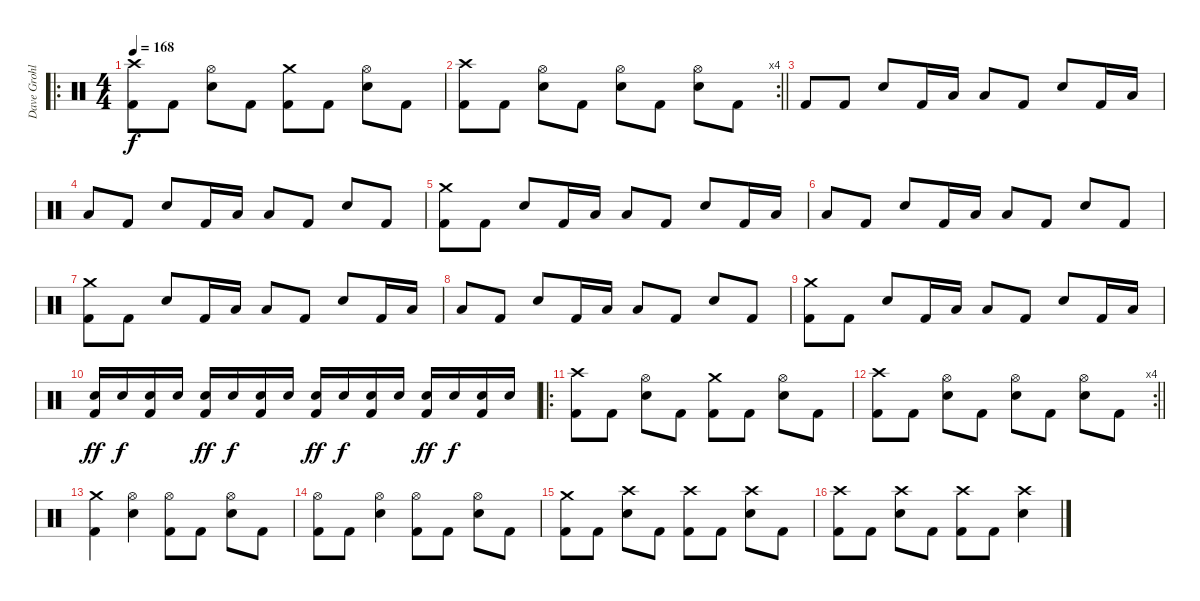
\track ("Dave Grohl - Drums" "Dave Grohl") {instrument percussion}
\staff {score}
\articulation defaults
\ro
\ts (4 4)
\tempo 168
\clef neutral
\ks c
("Crash high (hit)" "Kick (hit) 2").8{dy f volume 13} "Kick (hit) 2".8 ("Hi-Hat (open)" "Electric Snare (hit)").8 "Kick (hit) 2".8 ("Crash medium (hit)" "Kick (hit) 2").8 "Kick (hit) 2".8 ("Hi-Hat (open)" "Electric Snare (hit)").8 "Kick (hit) 2".8 |
\rc 4
\barLineRight lightlight
("Crash high (hit)" "Kick (hit) 2").8{volume 13} "Kick (hit) 2".8 ("Hi-Hat (open)" "Electric Snare (hit)").8 "Kick (hit) 2".8 ("Hi-Hat (open)" "Electric Snare (hit)").8 "Kick (hit) 2".8 ("Hi-Hat (open)" "Electric Snare (hit)").8 "Kick (hit) 2".8 |
"Kick (hit) 2".8 "Kick (hit) 2".8 "Electric Snare (hit)".8 "Kick (hit) 2".16 "Low Floor Tom (hit)".16 "Low Tom (hit)".8 "Kick (hit) 2".8 "Electric Snare (hit)".8 "Kick (hit) 2".16 "Low Floor Tom (hit)".16 |
"Low Tom (hit)".8 "Kick (hit) 2".8 "Electric Snare (hit)".8 "Kick (hit) 2".16 "Low Floor Tom (hit)".16 "Low Tom (hit)".8 "Kick (hit) 2".8 "Electric Snare (hit)".8 "Kick (hit) 2".8 |
("Crash medium (hit)" "Kick (hit) 2").8 "Kick (hit) 2".8 "Electric Snare (hit)".8 "Kick (hit) 2".16 "Low Floor Tom (hit)".16 "Low Tom (hit)".8 "Kick (hit) 2".8 "Electric Snare (hit)".8 "Kick (hit) 2".16 "Low Floor Tom (hit)".16 |
"Low Tom (hit)".8 "Kick (hit) 2".8 "Electric Snare (hit)".8 "Kick (hit) 2".16 "Low Floor Tom (hit)".16 "Low Tom (hit)".8 "Kick (hit) 2".8 "Electric Snare (hit)".8 "Kick (hit) 2".8 |
("Crash medium (hit)" "Kick (hit) 2").8 "Kick (hit) 2".8 "Electric Snare (hit)".8 "Kick (hit) 2".16 "Low Floor Tom (hit)".16 "Low Tom (hit)".8 "Kick (hit) 2".8 "Electric Snare (hit)".8 "Kick (hit) 2".16 "Low Floor Tom (hit)".16 |
"Low Tom (hit)".8 "Kick (hit) 2".8 "Electric Snare (hit)".8 "Kick (hit) 2".16 "Low Floor Tom (hit)".16 "Low Tom (hit)".8 "Kick (hit) 2".8 "Electric Snare (hit)".8 "Kick (hit) 2".8 |
("Crash medium (hit)" "Kick (hit) 2").8 "Kick (hit) 2".8 "Electric Snare (hit)".8 "Kick (hit) 2".16 "Low Floor Tom (hit)".16 "Low Tom (hit)".8 "Kick (hit) 2".8 "Electric Snare (hit)".8 "Kick (hit) 2".16 "Low Floor Tom (hit)".16 |
("Electric Snare (hit)" "Kick (hit) 2").16{dy ff volume 12} "Electric Snare (hit)".16{dy f} ("Electric Snare (hit)" "Kick (hit) 2").16 "Electric Snare (hit)".16 ("Electric Snare (hit)" "Kick (hit) 2").16{dy ff} "Electric Snare (hit)".16{dy f} ("Electric Snare (hit)" "Kick (hit) 2").16 "Electric Snare (hit)".16 ("Electric Snare (hit)" "Kick (hit) 2").16{dy ff} "Electric Snare (hit)".16{dy f} ("Electric Snare (hit)" "Kick (hit) 2").16 "Electric Snare (hit)".16 ("Electric Snare (hit)" "Kick (hit) 2").16{dy ff} "Electric Snare (hit)".16{dy f} ("Electric Snare (hit)" "Kick (hit) 2").16 "Electric Snare (hit)".16 |
\ro
("Crash high (hit)" "Kick (hit) 2").8{volume 13} "Kick (hit) 2".8 ("Hi-Hat (open)" "Electric Snare (hit)").8 "Kick (hit) 2".8 ("Crash medium (hit)" "Kick (hit) 2").8 "Kick (hit) 2".8 ("Hi-Hat (open)" "Electric Snare (hit)").8 "Kick (hit) 2".8 |
\rc 4
\barLineRight lightlight
("Crash high (hit)" "Kick (hit) 2").8{volume 13} "Kick (hit) 2".8 ("Hi-Hat (open)" "Electric Snare (hit)").8 "Kick (hit) 2".8 ("Hi-Hat (open)" "Electric Snare (hit)").8 "Kick (hit) 2".8 ("Hi-Hat (open)" "Electric Snare (hit)").8 "Kick (hit) 2".8 |
("Crash medium (hit)" "Kick (hit) 2").4 ("Hi-Hat (open)" "Electric Snare (hit)").4 ("Hi-Hat (open)" "Kick (hit) 2").8 "Kick (hit) 2".8 ("Hi-Hat (open)" "Electric Snare (hit)").8 "Kick (hit) 2".8 |
("Hi-Hat (open)" "Kick (hit) 2").8 "Kick (hit) 2".8 ("Hi-Hat (open)" "Electric Snare (hit)").4 ("Hi-Hat (open)" "Kick (hit) 2").8 "Kick (hit) 2".8 ("Hi-Hat (open)" "Electric Snare (hit)").8 "Kick (hit) 2".8 |
("Crash medium (hit)" "Kick (hit) 2").8 "Kick (hit) 2".8 ("Crash high (hit)" "Electric Snare (hit)").8 "Kick (hit) 2".8 ("Crash high (hit)" "Kick (hit) 2").8 "Kick (hit) 2".8 ("Crash high (hit)" "Electric Snare (hit)").8 "Kick (hit) 2".8 |
("Crash high (hit)" "Kick (hit) 2").8 "Kick (hit) 2".8 ("Crash high (hit)" "Electric Snare (hit)").8 "Kick (hit) 2".8 ("Crash high (hit)" "Kick (hit) 2").8 "Kick (hit) 2".8 ("Crash high (hit)" "Electric Snare (hit)").4
